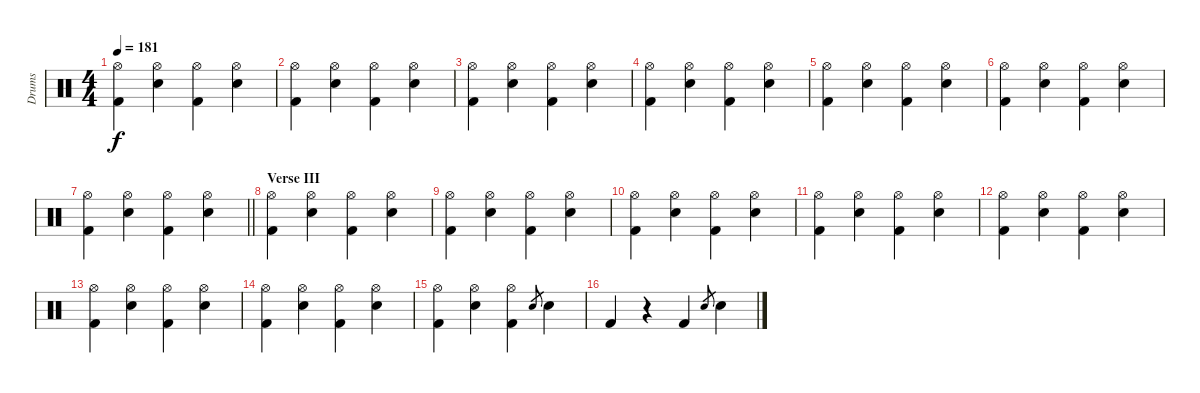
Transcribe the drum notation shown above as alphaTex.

\track ("Drums" "Drums") {instrument percussion}
\staff {score}
\articulation defaults
\ts (4 4)
\tempo 181
\clef neutral
\ks c
("Hi-Hat (open)" "Kick (hit) 2").4{dy f} ("Hi-Hat (open)" "Snare (hit) 2").4 ("Hi-Hat (open)" "Kick (hit) 2").4 ("Hi-Hat (open)" "Snare (hit) 2").4 |
("Hi-Hat (open)" "Kick (hit) 2").4 ("Hi-Hat (open)" "Snare (hit) 2").4 ("Hi-Hat (open)" "Kick (hit) 2").4 ("Hi-Hat (open)" "Snare (hit) 2").4 |
("Hi-Hat (open)" "Kick (hit) 2").4 ("Hi-Hat (open)" "Snare (hit) 2").4 ("Hi-Hat (open)" "Kick (hit) 2").4 ("Hi-Hat (open)" "Snare (hit) 2").4 |
("Hi-Hat (open)" "Kick (hit) 2").4 ("Hi-Hat (open)" "Snare (hit) 2").4 ("Hi-Hat (open)" "Kick (hit) 2").4 ("Hi-Hat (open)" "Snare (hit) 2").4 |
("Hi-Hat (open)" "Kick (hit) 2").4 ("Hi-Hat (open)" "Snare (hit) 2").4 ("Hi-Hat (open)" "Kick (hit) 2").4 ("Hi-Hat (open)" "Snare (hit) 2").4 |
("Hi-Hat (open)" "Kick (hit) 2").4 ("Hi-Hat (open)" "Snare (hit) 2").4 ("Hi-Hat (open)" "Kick (hit) 2").4 ("Hi-Hat (open)" "Snare (hit) 2").4 |
\barLineRight lightlight
("Hi-Hat (open)" "Kick (hit) 2").4 ("Hi-Hat (open)" "Snare (hit) 2").4 ("Hi-Hat (open)" "Kick (hit) 2").4 ("Hi-Hat (open)" "Snare (hit) 2").4 |
\section ("" "Verse III")
("Hi-Hat (open)" "Kick (hit) 2").4 ("Hi-Hat (open)" "Snare (hit) 2").4 ("Hi-Hat (open)" "Kick (hit) 2").4 ("Hi-Hat (open)" "Snare (hit) 2").4 |
("Hi-Hat (open)" "Kick (hit) 2").4 ("Hi-Hat (open)" "Snare (hit) 2").4 ("Hi-Hat (open)" "Kick (hit) 2").4 ("Hi-Hat (open)" "Snare (hit) 2").4 |
("Hi-Hat (open)" "Kick (hit) 2").4 ("Hi-Hat (open)" "Snare (hit) 2").4 ("Hi-Hat (open)" "Kick (hit) 2").4 ("Hi-Hat (open)" "Snare (hit) 2").4 |
("Hi-Hat (open)" "Kick (hit) 2").4 ("Hi-Hat (open)" "Snare (hit) 2").4 ("Hi-Hat (open)" "Kick (hit) 2").4 ("Hi-Hat (open)" "Snare (hit) 2").4 |
("Hi-Hat (open)" "Kick (hit) 2").4 ("Hi-Hat (open)" "Snare (hit) 2").4 ("Hi-Hat (open)" "Kick (hit) 2").4 ("Hi-Hat (open)" "Snare (hit) 2").4 |
("Hi-Hat (open)" "Kick (hit) 2").4 ("Hi-Hat (open)" "Snare (hit) 2").4 ("Hi-Hat (open)" "Kick (hit) 2").4 ("Hi-Hat (open)" "Snare (hit) 2").4 |
("Hi-Hat (open)" "Kick (hit) 2").4 ("Hi-Hat (open)" "Snare (hit) 2").4 ("Hi-Hat (open)" "Kick (hit) 2").4 ("Hi-Hat (open)" "Snare (hit) 2").4 |
("Hi-Hat (open)" "Kick (hit) 2").4 ("Hi-Hat (open)" "Snare (hit) 2").4 ("Hi-Hat (open)" "Kick (hit) 2").4 "Snare (hit) 2".8{gr} "Snare (hit) 2".4 |
"Kick (hit) 2".4 r.4 "Kick (hit) 2".4 "Snare (hit) 2".8{gr} "Snare (hit) 2".4
